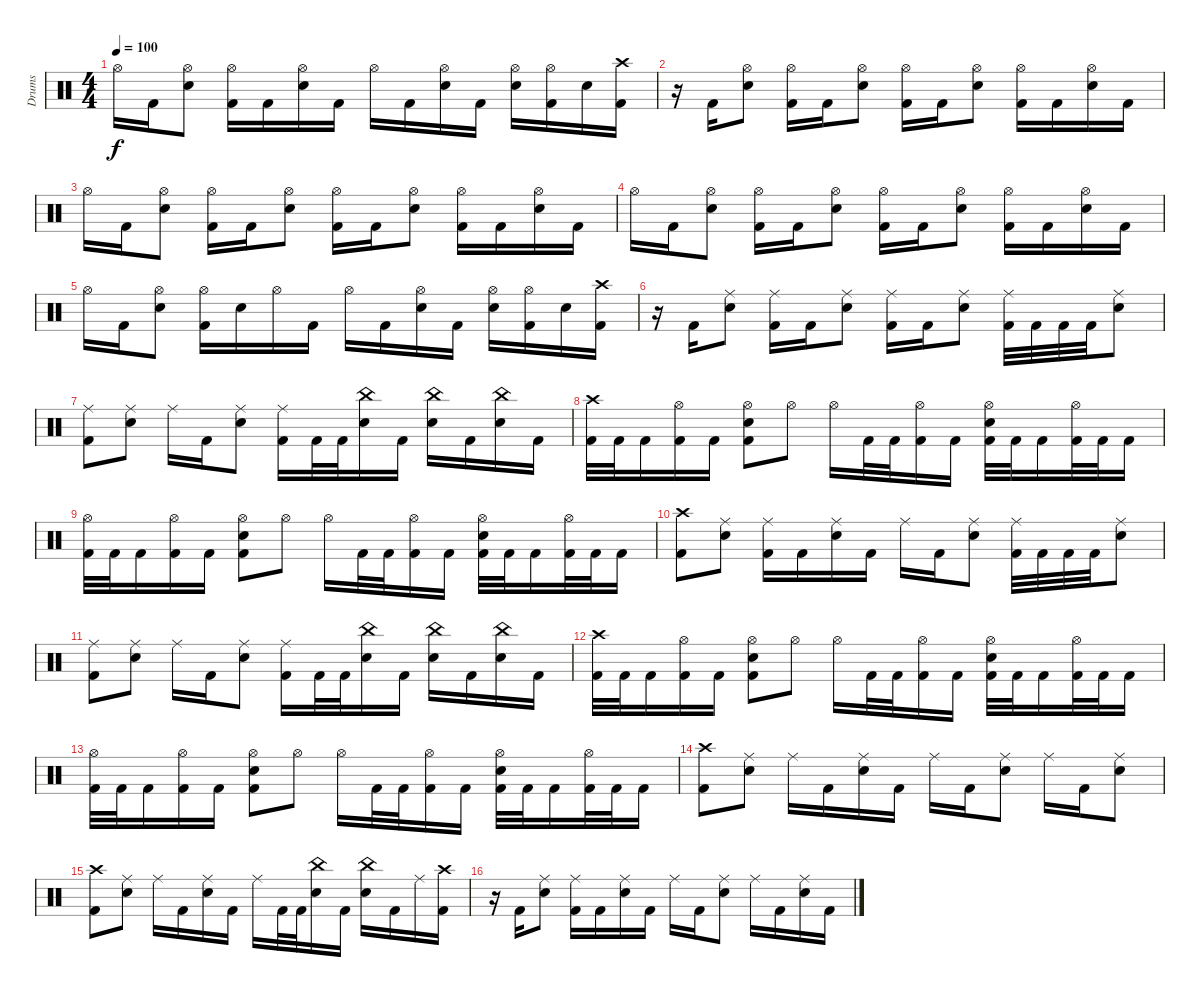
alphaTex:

\track ("Drums" "Drums") {instrument percussion}
\staff {score}
\articulation defaults
\ts (4 4)
\tempo 100
\clef neutral
\ks c "Hi-Hat (open)".16{dy f} "Kick (hit) 2".16
("Hi-Hat (open)" "Electric Snare (hit)").8 ("Hi-Hat (open)" "Kick (hit) 2").16 "Kick (hit) 2".16 ("Hi-Hat (open)" "Electric Snare (hit)").16 "Kick (hit) 2".16 "Hi-Hat (open)".16 "Kick (hit) 2".16 ("Hi-Hat (open)" "Electric Snare (hit)").16 "Kick (hit) 2".16 ("Hi-Hat (open)" "Electric Snare (hit)").16 ("Hi-Hat (open)" "Kick (hit) 2").16 "Electric Snare (hit)".16 ("Crash high (hit)" "Kick (hit) 2").16 |
r.16 "Kick (hit) 2".16 ("Hi-Hat (open)" "Electric Snare (hit)").8 ("Hi-Hat (open)" "Kick (hit) 2").16 "Kick (hit) 2".16 ("Hi-Hat (open)" "Electric Snare (hit)").8 ("Hi-Hat (open)" "Kick (hit) 2").16 "Kick (hit) 2".16 ("Hi-Hat (open)" "Electric Snare (hit)").8 ("Hi-Hat (open)" "Kick (hit) 2").16 "Kick (hit) 2".16 ("Hi-Hat (open)" "Electric Snare (hit)").16 "Kick (hit) 2".16 |
"Hi-Hat (open)".16 "Kick (hit) 2".16 ("Hi-Hat (open)" "Electric Snare (hit)").8 ("Hi-Hat (open)" "Kick (hit) 2").16 "Kick (hit) 2".16 ("Hi-Hat (open)" "Electric Snare (hit)").8 ("Hi-Hat (open)" "Kick (hit) 2").16 "Kick (hit) 2".16 ("Hi-Hat (open)" "Electric Snare (hit)").8 ("Hi-Hat (open)" "Kick (hit) 2").16 "Kick (hit) 2".16 ("Hi-Hat (open)" "Electric Snare (hit)").16 "Kick (hit) 2".16 |
"Hi-Hat (open)".16 "Kick (hit) 2".16 ("Hi-Hat (open)" "Electric Snare (hit)").8 ("Hi-Hat (open)" "Kick (hit) 2").16 "Kick (hit) 2".16 ("Hi-Hat (open)" "Electric Snare (hit)").8 ("Hi-Hat (open)" "Kick (hit) 2").16 "Kick (hit) 2".16 ("Hi-Hat (open)" "Electric Snare (hit)").8 ("Hi-Hat (open)" "Kick (hit) 2").16 "Kick (hit) 2".16 ("Hi-Hat (open)" "Electric Snare (hit)").16 "Kick (hit) 2".16 |
"Hi-Hat (open)".16 "Kick (hit) 2".16 ("Hi-Hat (open)" "Electric Snare (hit)").8 ("Hi-Hat (open)" "Kick (hit) 2").16 "Electric Snare (hit)".16 "Hi-Hat (open)".16 "Kick (hit) 2".16 "Hi-Hat (open)".16 "Kick (hit) 2".16 ("Hi-Hat (open)" "Electric Snare (hit)").16 "Kick (hit) 2".16 ("Hi-Hat (open)" "Electric Snare (hit)").16 ("Hi-Hat (open)" "Kick (hit) 2").16 "Electric Snare (hit)".16 ("Crash high (hit)" "Kick (hit) 2").16 |
r.16 "Kick (hit) 2".16 ("Ride (middle)" "Electric Snare (hit)").8 ("Ride (middle)" "Kick (hit) 2").16 "Kick (hit) 2".16 ("Ride (middle)" "Electric Snare (hit)").8 ("Ride (middle)" "Kick (hit) 2").16 "Kick (hit) 2".16 ("Ride (middle)" "Electric Snare (hit)").8 ("Ride (middle)" "Kick (hit) 2").32 "Kick (hit) 2".32 "Kick (hit) 2".32 "Kick (hit) 2".32 ("Ride (middle)" "Electric Snare (hit)").8 |
("Ride (middle)" "Kick (hit) 2").8 ("Ride (middle)" "Electric Snare (hit)").8 "Ride (middle)".16 "Kick (hit) 2".16 ("Ride (middle)" "Electric Snare (hit)").8 ("Ride (middle)" "Kick (hit) 2").16 "Kick (hit) 2".32 "Kick (hit) 2".32 ("China (hit)" "Electric Snare (hit)").16 "Kick (hit) 2".16 ("China (hit)" "Electric Snare (hit)").16 "Kick (hit) 2".16 ("China (hit)" "Electric Snare (hit)").16 "Kick (hit) 2".16 |
("Crash high (hit)" "Kick (hit) 2").32 "Kick (hit) 2".32 "Kick (hit) 2".16 ("Hi-Hat (open)" "Kick (hit) 2").16 "Kick (hit) 2".16 ("Hi-Hat (open)" "Electric Snare (hit)" "Kick (hit) 2").8 "Hi-Hat (open)".8 "Hi-Hat (open)".16 "Kick (hit) 2".32 "Kick (hit) 2".32 ("Hi-Hat (open)" "Kick (hit) 2").16 "Kick (hit) 2".16 ("Hi-Hat (open)" "Electric Snare (hit)" "Kick (hit) 2").32 "Kick (hit) 2".32 "Kick (hit) 2".16 ("Hi-Hat (open)" "Kick (hit) 2").32 "Kick (hit) 2".32 "Kick (hit) 2".16 |
("Hi-Hat (open)" "Kick (hit) 2").32 "Kick (hit) 2".32 "Kick (hit) 2".16 ("Hi-Hat (open)" "Kick (hit) 2").16 "Kick (hit) 2".16 ("Hi-Hat (open)" "Electric Snare (hit)" "Kick (hit) 2").8 "Hi-Hat (open)".8 "Hi-Hat (open)".16 "Kick (hit) 2".32 "Kick (hit) 2".32 ("Hi-Hat (open)" "Kick (hit) 2").16 "Kick (hit) 2".16 ("Hi-Hat (open)" "Electric Snare (hit)" "Kick (hit) 2").32 "Kick (hit) 2".32 "Kick (hit) 2".16 ("Hi-Hat (open)" "Kick (hit) 2").32 "Kick (hit) 2".32 "Kick (hit) 2".16 |
("Crash high (hit)" "Kick (hit) 2").8 ("Ride (middle)" "Electric Snare (hit)").8 ("Ride (middle)" "Kick (hit) 2").16 "Kick (hit) 2".16 ("Ride (middle)" "Electric Snare (hit)").16 "Kick (hit) 2".16 "Ride (middle)".16 "Kick (hit) 2".16 ("Ride (middle)" "Electric Snare (hit)").8 ("Ride (middle)" "Kick (hit) 2").32 "Kick (hit) 2".32 "Kick (hit) 2".32 "Kick (hit) 2".32 ("Ride (middle)" "Electric Snare (hit)").8 |
("Ride (middle)" "Kick (hit) 2").8 ("Ride (middle)" "Electric Snare (hit)").8 "Ride (middle)".16 "Kick (hit) 2".16 ("Ride (middle)" "Electric Snare (hit)").8 ("Ride (middle)" "Kick (hit) 2").16 "Kick (hit) 2".32 "Kick (hit) 2".32 ("China (hit)" "Electric Snare (hit)").16 "Kick (hit) 2".16 ("China (hit)" "Electric Snare (hit)").16 "Kick (hit) 2".16 ("China (hit)" "Electric Snare (hit)").16 "Kick (hit) 2".16 |
("Crash high (hit)" "Kick (hit) 2").32 "Kick (hit) 2".32 "Kick (hit) 2".16 ("Hi-Hat (open)" "Kick (hit) 2").16 "Kick (hit) 2".16 ("Hi-Hat (open)" "Electric Snare (hit)" "Kick (hit) 2").8 "Hi-Hat (open)".8 "Hi-Hat (open)".16 "Kick (hit) 2".32 "Kick (hit) 2".32 ("Hi-Hat (open)" "Kick (hit) 2").16 "Kick (hit) 2".16 ("Hi-Hat (open)" "Electric Snare (hit)" "Kick (hit) 2").32 "Kick (hit) 2".32 "Kick (hit) 2".16 ("Hi-Hat (open)" "Kick (hit) 2").32 "Kick (hit) 2".32 "Kick (hit) 2".16 |
("Hi-Hat (open)" "Kick (hit) 2").32 "Kick (hit) 2".32 "Kick (hit) 2".16 ("Hi-Hat (open)" "Kick (hit) 2").16 "Kick (hit) 2".16 ("Hi-Hat (open)" "Electric Snare (hit)" "Kick (hit) 2").8 "Hi-Hat (open)".8 "Hi-Hat (open)".16 "Kick (hit) 2".32 "Kick (hit) 2".32 ("Hi-Hat (open)" "Kick (hit) 2").16 "Kick (hit) 2".16 ("Hi-Hat (open)" "Electric Snare (hit)" "Kick (hit) 2").32 "Kick (hit) 2".32 "Kick (hit) 2".16 ("Hi-Hat (open)" "Kick (hit) 2").32 "Kick (hit) 2".32 "Kick (hit) 2".16 |
("Crash high (hit)" "Kick (hit) 2").8 ("Ride (middle)" "Electric Snare (hit)").8 "Ride (middle)".16 "Kick (hit) 2".16 ("Ride (middle)" "Electric Snare (hit)").16 "Kick (hit) 2".16 "Ride (middle)".16 "Kick (hit) 2".16 ("Ride (middle)" "Electric Snare (hit)").8 "Ride (middle)".16 "Kick (hit) 2".16 ("Ride (middle)" "Electric Snare (hit)").8 |
("Crash high (hit)" "Kick (hit) 2").8 ("Ride (middle)" "Electric Snare (hit)").8 "Ride (middle)".16 "Kick (hit) 2".16 ("Ride (middle)" "Electric Snare (hit)").16 "Kick (hit) 2".16 "Ride (middle)".16 "Kick (hit) 2".32 "Kick (hit) 2".32 ("China (hit)" "Electric Snare (hit)").16 "Kick (hit) 2".16 ("China (hit)" "Electric Snare (hit)").16 "Kick (hit) 2".16 "Ride (middle)".16 ("Crash high (hit)" "Kick (hit) 2").16 |
r.16 "Kick (hit) 2".16 ("Ride (middle)" "Electric Snare (hit)").8 ("Ride (middle)" "Kick (hit) 2").16 "Kick (hit) 2".16 ("Ride (middle)" "Electric Snare (hit)").16 "Kick (hit) 2".16 "Ride (middle)".16 "Kick (hit) 2".16 ("Ride (middle)" "Electric Snare (hit)").8 "Ride (middle)".16 "Kick (hit) 2".16 ("Ride (middle)" "Electric Snare (hit)").16 "Kick (hit) 2".16
